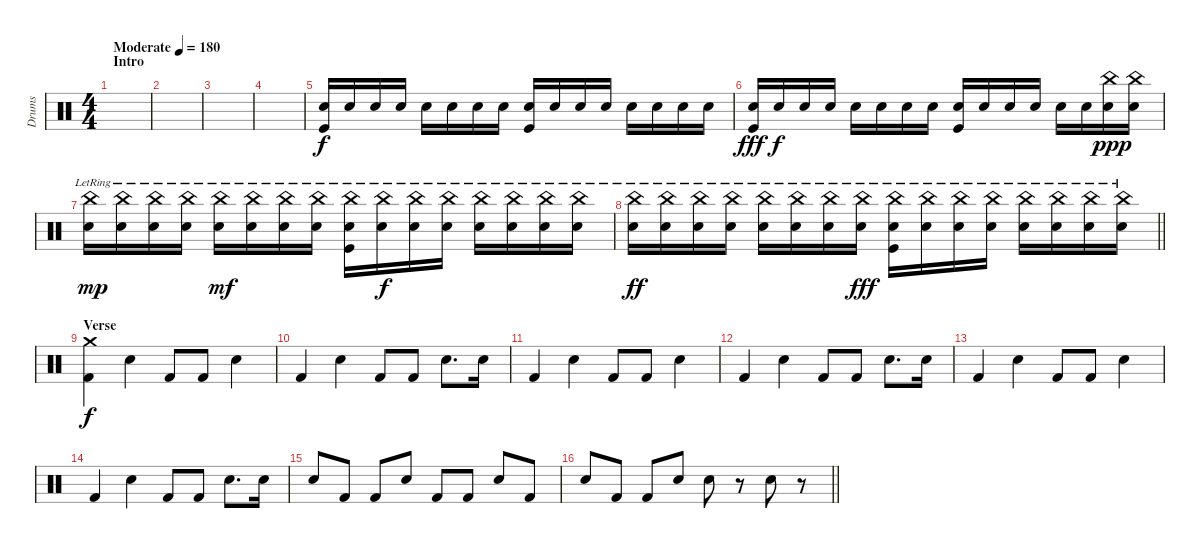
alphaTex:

\track ("Drums" "Drums") {instrument percussion}
\staff {score}
\articulation defaults
\ts (4 4)
\section ("" "Intro")
\tempo (180 "Moderate")
\clef neutral
\ks c
|
|
|
|
("Snare (hit) 2" "Kick (hit)").16 "Snare (hit) 2".16{dy f} "Snare (hit) 2".16 "Snare (hit) 2".16 "Snare (hit) 2".16 "Snare (hit) 2".16 "Snare (hit) 2".16 "Snare (hit) 2".16 ("Snare (hit) 2" "Kick (hit)").16 "Snare (hit) 2".16 "Snare (hit) 2".16 "Snare (hit) 2".16 "Snare (hit) 2".16 "Snare (hit) 2".16 "Snare (hit) 2".16 "Snare (hit) 2".16 |
("Snare (hit) 2" "Kick (hit)").16{dy fff} "Snare (hit) 2".16{dy f} "Snare (hit) 2".16 "Snare (hit) 2".16 "Snare (hit) 2".16 "Snare (hit) 2".16 "Snare (hit) 2".16 "Snare (hit) 2".16 ("Snare (hit) 2" "Kick (hit)").16 "Snare (hit) 2".16 "Snare (hit) 2".16 "Snare (hit) 2".16 "Snare (hit) 2".16 "Snare (hit) 2".16 ("China (hit)" "Snare (hit) 2").16{dy ppp} ("China (hit)" "Snare (hit) 2").16 |
("China (hit)"{lr} "Snare (hit) 2").16{dy mp} ("China (hit)"{lr} "Snare (hit) 2").16 ("China (hit)"{lr} "Snare (hit) 2").16 ("China (hit)"{lr} "Snare (hit) 2").16 ("China (hit)"{lr} "Snare (hit) 2").16{dy mf} ("China (hit)"{lr} "Snare (hit) 2").16 ("China (hit)"{lr} "Snare (hit) 2").16 ("China (hit)"{lr} "Snare (hit) 2").16 ("China (hit)"{lr} "Snare (hit) 2" "Kick (hit)").16 ("China (hit)"{lr} "Snare (hit) 2").16{dy f} ("China (hit)"{lr} "Snare (hit) 2").16 ("China (hit)"{lr} "Snare (hit) 2").16 ("China (hit)"{lr} "Snare (hit) 2").16 ("China (hit)"{lr} "Snare (hit) 2").16 ("China (hit)"{lr} "Snare (hit) 2").16 ("China (hit)"{lr} "Snare (hit) 2").16 |
\barLineRight lightlight
("China (hit)"{lr} "Snare (hit) 2").16{dy ff} ("China (hit)"{lr} "Snare (hit) 2").16 ("China (hit)"{lr} "Snare (hit) 2").16 ("China (hit)"{lr} "Snare (hit) 2").16 ("China (hit)"{lr} "Snare (hit) 2").16 ("China (hit)"{lr} "Snare (hit) 2").16 ("China (hit)"{lr} "Snare (hit) 2").16 ("China (hit)"{lr} "Snare (hit) 2").16{dy fff} ("China (hit)"{lr} "Snare (hit) 2" "Kick (hit)").16 ("China (hit)"{lr} "Snare (hit) 2").16 ("China (hit)"{lr} "Snare (hit) 2").16 ("China (hit)"{lr} "Snare (hit) 2").16 ("China (hit)"{lr} "Snare (hit) 2").16 ("China (hit)"{lr} "Snare (hit) 2").16 ("China (hit)"{lr} "Snare (hit) 2").16 ("China (hit)"{lr} "Snare (hit) 2").16 |
\section ("" "Verse")
("Kick (hit) 2" "Crash medium (hit)").4{dy f} "Snare (hit) 2".4 "Kick (hit) 2".8 "Kick (hit) 2".8 "Snare (hit) 2".4 |
"Kick (hit) 2".4 "Snare (hit) 2".4 "Kick (hit) 2".8 "Kick (hit) 2".8 "Snare (hit) 2".8{d} "Snare (hit) 2".16 |
"Kick (hit) 2".4 "Snare (hit) 2".4 "Kick (hit) 2".8 "Kick (hit) 2".8 "Snare (hit) 2".4 |
"Kick (hit) 2".4 "Snare (hit) 2".4 "Kick (hit) 2".8 "Kick (hit) 2".8 "Snare (hit) 2".8{d} "Snare (hit) 2".16 |
"Kick (hit) 2".4 "Snare (hit) 2".4 "Kick (hit) 2".8 "Kick (hit) 2".8 "Snare (hit) 2".4 |
"Kick (hit) 2".4 "Snare (hit) 2".4 "Kick (hit) 2".8 "Kick (hit) 2".8 "Snare (hit) 2".8{d} "Snare (hit) 2".16 |
"Snare (hit) 2".8 "Kick (hit) 2".8 "Kick (hit) 2".8 "Snare (hit) 2".8 "Kick (hit) 2".8 "Kick (hit) 2".8 "Snare (hit) 2".8 "Kick (hit) 2".8 |
\barLineRight lightlight "Snare (hit) 2".8 "Kick (hit) 2".8 "Kick (hit) 2".8 "Snare (hit) 2".8 "Snare (hit) 2".8
r.8 "Snare (hit) 2".8 r.8
